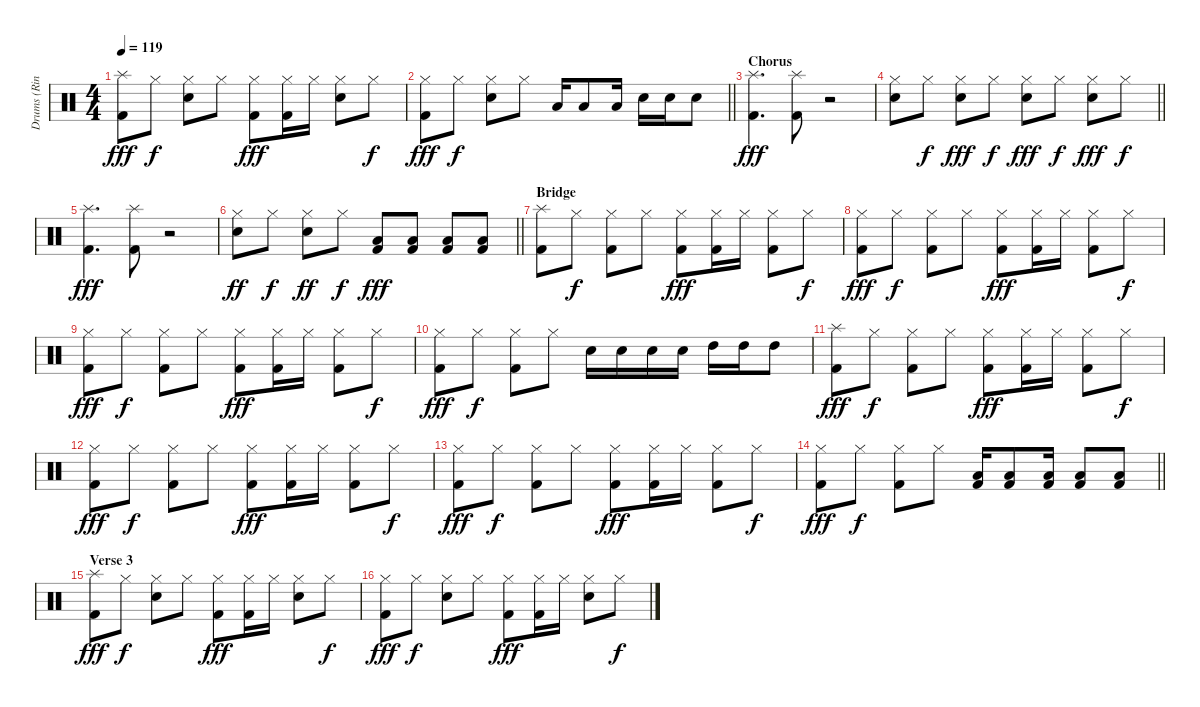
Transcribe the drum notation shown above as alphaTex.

\track ("Drums (Ringo Starr)" "Drums (Rin") {instrument percussion}
\staff {score}
\articulation defaults
\ts (4 4)
\tempo 119
\clef neutral
\ks c
("Splash (hit)" "Kick (hit) 2").8{dy fff} "Hi-Hat (closed)".8{dy f} ("Hi-Hat (closed)" "Snare (hit) 2").8 "Hi-Hat (closed)".8 ("Hi-Hat (closed)" "Kick (hit) 2").8{dy fff} ("Hi-Hat (closed)" "Kick (hit) 2").16 "Hi-Hat (closed)".16 ("Hi-Hat (closed)" "Snare (hit) 2").8 "Hi-Hat (closed)".8{dy f} |
\barLineRight lightlight
("Hi-Hat (closed)" "Kick (hit) 2").8{dy fff} "Hi-Hat (closed)".8{dy f} ("Hi-Hat (closed)" "Snare (hit) 2").8 "Hi-Hat (closed)".8 "Low Floor Tom (hit)".16 "Low Floor Tom (hit)".8 "Low Floor Tom (hit)".16 "Snare (hit) 2".16 "Snare (hit) 2".16 "Snare (hit) 2".8 |
\section ("" "Chorus")
("Splash (hit)" "Kick (hit) 2").4{d dy fff} ("Splash (hit)" "Kick (hit) 2").8 r.2 |
\barLineRight lightlight
("Hi-Hat (closed)" "Snare (hit) 2").8 "Hi-Hat (closed)".8{dy f} ("Hi-Hat (closed)" "Snare (hit) 2").8{dy fff} "Hi-Hat (closed)".8{dy f} ("Hi-Hat (closed)" "Snare (hit) 2").8{dy fff} "Hi-Hat (closed)".8{dy f} ("Hi-Hat (closed)" "Snare (hit) 2").8{dy fff} "Hi-Hat (closed)".8{dy f} |
("Splash (hit)" "Kick (hit) 2").4{d dy fff} ("Splash (hit)" "Kick (hit) 2").8 r.2 |
\barLineRight lightlight
("Hi-Hat (closed)" "Snare (hit) 2").8{dy ff} "Hi-Hat (closed)".8{dy f} ("Hi-Hat (closed)" "Snare (hit) 2").8{dy ff} "Hi-Hat (closed)".8{dy f} ("Low Floor Tom (hit)" "Kick (hit) 2").8{dy fff} ("Low Floor Tom (hit)" "Kick (hit) 2").8 ("Low Floor Tom (hit)" "Kick (hit) 2").8 ("Low Floor Tom (hit)" "Kick (hit) 2").8 |
\section ("" "Bridge")
("Splash (hit)" "Kick (hit) 2").8 "Hi-Hat (closed)".8{dy f} ("Hi-Hat (closed)" "Kick (hit) 2").8 "Hi-Hat (closed)".8 ("Hi-Hat (closed)" "Kick (hit) 2").8{dy fff} ("Hi-Hat (closed)" "Kick (hit) 2").16 "Hi-Hat (closed)".16 ("Hi-Hat (closed)" "Kick (hit) 2").8 "Hi-Hat (closed)".8{dy f} |
("Hi-Hat (closed)" "Kick (hit) 2").8{dy fff} "Hi-Hat (closed)".8{dy f} ("Hi-Hat (closed)" "Kick (hit) 2").8 "Hi-Hat (closed)".8 ("Hi-Hat (closed)" "Kick (hit) 2").8{dy fff} ("Hi-Hat (closed)" "Kick (hit) 2").16 "Hi-Hat (closed)".16 ("Hi-Hat (closed)" "Kick (hit) 2").8 "Hi-Hat (closed)".8{dy f} |
("Hi-Hat (closed)" "Kick (hit) 2").8{dy fff} "Hi-Hat (closed)".8{dy f} ("Hi-Hat (closed)" "Kick (hit) 2").8 "Hi-Hat (closed)".8 ("Hi-Hat (closed)" "Kick (hit) 2").8{dy fff} ("Hi-Hat (closed)" "Kick (hit) 2").16 "Hi-Hat (closed)".16 ("Hi-Hat (closed)" "Kick (hit) 2").8 "Hi-Hat (closed)".8{dy f} |
("Hi-Hat (closed)" "Kick (hit) 2").8{dy fff} "Hi-Hat (closed)".8{dy f} ("Hi-Hat (closed)" "Kick (hit) 2").8 "Hi-Hat (closed)".8 "Snare (hit) 2".16 "Snare (hit) 2".16 "Snare (hit) 2".16 "Snare (hit) 2".16 "High Tom (hit)".16 "High Tom (hit)".16 "High Tom (hit)".8 |
("Splash (hit)" "Kick (hit) 2").8{dy fff} "Hi-Hat (closed)".8{dy f} ("Hi-Hat (closed)" "Kick (hit) 2").8 "Hi-Hat (closed)".8 ("Hi-Hat (closed)" "Kick (hit) 2").8{dy fff} ("Hi-Hat (closed)" "Kick (hit) 2").16 "Hi-Hat (closed)".16 ("Hi-Hat (closed)" "Kick (hit) 2").8 "Hi-Hat (closed)".8{dy f} |
("Hi-Hat (closed)" "Kick (hit) 2").8{dy fff} "Hi-Hat (closed)".8{dy f} ("Hi-Hat (closed)" "Kick (hit) 2").8 "Hi-Hat (closed)".8 ("Hi-Hat (closed)" "Kick (hit) 2").8{dy fff} ("Hi-Hat (closed)" "Kick (hit) 2").16 "Hi-Hat (closed)".16 ("Hi-Hat (closed)" "Kick (hit) 2").8 "Hi-Hat (closed)".8{dy f} |
("Hi-Hat (closed)" "Kick (hit) 2").8{dy fff} "Hi-Hat (closed)".8{dy f} ("Hi-Hat (closed)" "Kick (hit) 2").8 "Hi-Hat (closed)".8 ("Hi-Hat (closed)" "Kick (hit) 2").8{dy fff} ("Hi-Hat (closed)" "Kick (hit) 2").16 "Hi-Hat (closed)".16 ("Hi-Hat (closed)" "Kick (hit) 2").8 "Hi-Hat (closed)".8{dy f} |
\barLineRight lightlight
("Hi-Hat (closed)" "Kick (hit) 2").8{dy fff} "Hi-Hat (closed)".8{dy f} ("Hi-Hat (closed)" "Kick (hit) 2").8 "Hi-Hat (closed)".8 ("Low Floor Tom (hit)" "Kick (hit) 2").16 ("Low Floor Tom (hit)" "Kick (hit) 2").8 ("Low Floor Tom (hit)" "Kick (hit) 2").16 ("Low Floor Tom (hit)" "Kick (hit) 2").8 ("Low Floor Tom (hit)" "Kick (hit) 2").8 |
\section ("" "Verse 3")
("Splash (hit)" "Kick (hit) 2").8{dy fff} "Hi-Hat (closed)".8{dy f} ("Hi-Hat (closed)" "Snare (hit) 2").8 "Hi-Hat (closed)".8 ("Hi-Hat (closed)" "Kick (hit) 2").8{dy fff} ("Hi-Hat (closed)" "Kick (hit) 2").16 "Hi-Hat (closed)".16 ("Hi-Hat (closed)" "Snare (hit) 2").8 "Hi-Hat (closed)".8{dy f} |
("Hi-Hat (closed)" "Kick (hit) 2").8{dy fff} "Hi-Hat (closed)".8{dy f} ("Hi-Hat (closed)" "Snare (hit) 2").8 "Hi-Hat (closed)".8 ("Hi-Hat (closed)" "Kick (hit) 2").8{dy fff} ("Hi-Hat (closed)" "Kick (hit) 2").16 "Hi-Hat (closed)".16 ("Hi-Hat (closed)" "Snare (hit) 2").8 "Hi-Hat (closed)".8{dy f}
